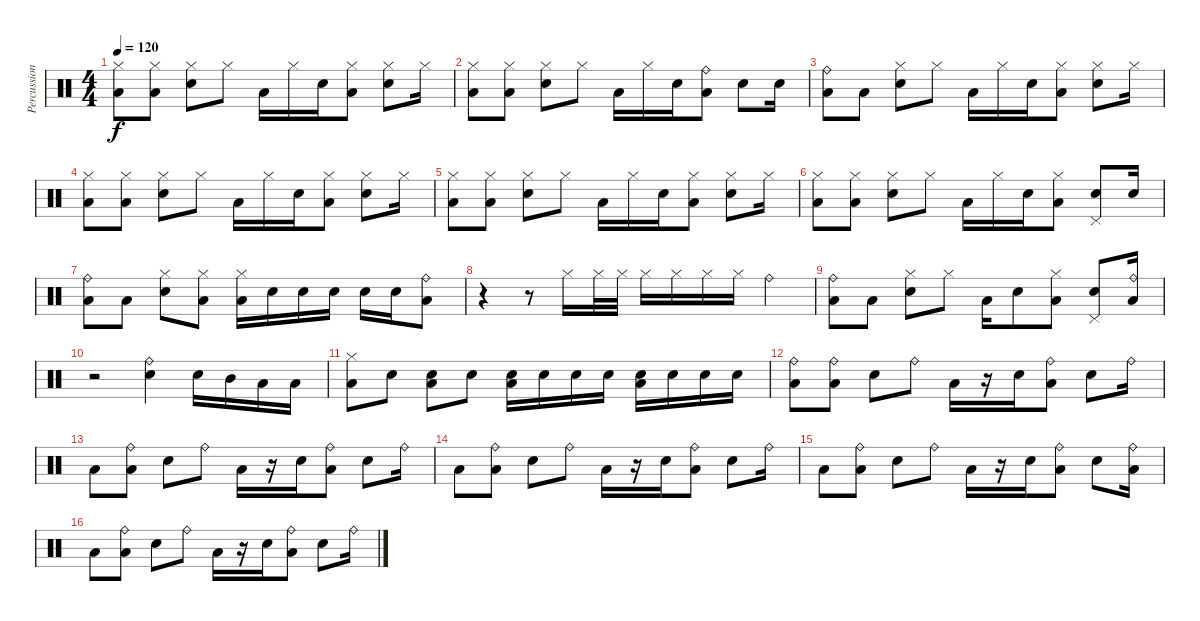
\track ("Percussion" "Percussion") {instrument percussion}
\staff {score}
\articulation defaults
\ts (4 4)
\tempo 120
\clef neutral
\ks c
("Hi-Hat (closed)" "Low Floor Tom (hit)").8{dy f} ("Hi-Hat (closed)" "Low Floor Tom (hit)").8 ("Hi-Hat (closed)" "Snare (hit) 2").8 "Hi-Hat (closed)".8 "Low Floor Tom (hit)".16 "Hi-Hat (closed)".16 "Snare (hit) 2".16 ("Hi-Hat (closed)" "Low Floor Tom (hit)").8 ("Hi-Hat (closed)" "Snare (hit) 2").8 "Hi-Hat (closed)".16 |
("Hi-Hat (closed)" "Low Floor Tom (hit)").8 ("Hi-Hat (closed)" "Low Floor Tom (hit)").8 ("Hi-Hat (closed)" "Snare (hit) 2").8 "Hi-Hat (closed)".8 "Low Floor Tom (hit)".16 "Hi-Hat (closed)".16 "Snare (hit) 2".16 ("Ride (bell)" "Low Floor Tom (hit)").8 "Snare (hit) 2".8 "Snare (hit) 2".16 |
("Ride (bell)" "Low Floor Tom (hit)").8 "Low Floor Tom (hit)".8 ("Hi-Hat (closed)" "Snare (hit) 2").8 "Hi-Hat (closed)".8 "Low Floor Tom (hit)".16 "Hi-Hat (closed)".16 "Snare (hit) 2".16 ("Hi-Hat (closed)" "Low Floor Tom (hit)").8 ("Hi-Hat (closed)" "Snare (hit) 2").8 "Hi-Hat (closed)".16 |
("Hi-Hat (closed)" "Low Floor Tom (hit)").8 ("Hi-Hat (closed)" "Low Floor Tom (hit)").8 ("Hi-Hat (closed)" "Snare (hit) 2").8 "Hi-Hat (closed)".8 "Low Floor Tom (hit)".16 "Hi-Hat (closed)".16 "Snare (hit) 2".16 ("Hi-Hat (closed)" "Low Floor Tom (hit)").8 ("Hi-Hat (closed)" "Snare (hit) 2").8 "Hi-Hat (closed)".16 |
("Hi-Hat (closed)" "Low Floor Tom (hit)").8 ("Hi-Hat (closed)" "Low Floor Tom (hit)").8 ("Hi-Hat (closed)" "Snare (hit) 2").8 "Hi-Hat (closed)".8 "Low Floor Tom (hit)".16 "Hi-Hat (closed)".16 "Snare (hit) 2".16 ("Hi-Hat (closed)" "Low Floor Tom (hit)").8 ("Hi-Hat (closed)" "Snare (hit) 2").8 "Hi-Hat (closed)".16 |
("Hi-Hat (closed)" "Low Floor Tom (hit)").8 ("Hi-Hat (closed)" "Low Floor Tom (hit)").8 ("Hi-Hat (closed)" "Snare (hit) 2").8 "Hi-Hat (closed)".8 "Low Floor Tom (hit)".16 "Hi-Hat (closed)".16 "Snare (hit) 2".16 ("Hi-Hat (closed)" "Low Floor Tom (hit)").8 ("Pedal Hi-Hat (hit)" "Snare (hit) 2").8 "Snare (hit) 2".16 |
("Ride (bell)" "Low Floor Tom (hit)").8 "Low Floor Tom (hit)".8 ("Hi-Hat (closed)" "Snare (hit) 2").8 ("Hi-Hat (closed)" "Low Floor Tom (hit)").8 ("Hi-Hat (closed)" "Low Floor Tom (hit)").16 "Snare (hit) 2".16 "Snare (hit) 2".16 "Snare (hit) 2".16 "Snare (hit) 2".16 "Snare (hit) 2".16 ("Ride (bell)" "Low Floor Tom (hit)").8 |
r.4 r.8 "Hi-Hat (closed)".16 "Hi-Hat (closed)".32 "Hi-Hat (closed)".32 "Hi-Hat (closed)".16 "Hi-Hat (closed)".16 "Hi-Hat (closed)".16 "Hi-Hat (closed)".16 "Ride (bell)".4 |
("Ride (bell)" "Low Floor Tom (hit)").8 "Low Floor Tom (hit)".8 ("Hi-Hat (closed)" "Snare (hit) 2").8 "Hi-Hat (closed)".8 "Low Floor Tom (hit)".16 "Snare (hit) 2".8 ("Hi-Hat (closed)" "Low Floor Tom (hit)").8 ("Pedal Hi-Hat (hit)" "Snare (hit) 2").8 ("Ride (bell)" "Low Floor Tom (hit)").16 |
r.2 ("Ride (bell)" "Snare (hit) 2").4 "Snare (hit) 2".16 "Mid Tom (hit)".16 "Low Tom (hit)".16 "Low Floor Tom (hit)".16 |
("Hi-Hat (closed)" "Low Floor Tom (hit)").8 "Snare (hit) 2".8 ("Snare (hit) 2" "Low Floor Tom (hit)").8 "Snare (hit) 2".8 ("Snare (hit) 2" "Low Floor Tom (hit)").16 "Snare (hit) 2".16 "Snare (hit) 2".16 "Snare (hit) 2".16 ("Snare (hit) 2" "Low Floor Tom (hit)").16 "Snare (hit) 2".16 "Snare (hit) 2".16 "Snare (hit) 2".16 |
("Ride (bell)" "Low Floor Tom (hit)").8 ("Ride (bell)" "Low Floor Tom (hit)").8 "Snare (hit) 2".8 "Ride (bell)".8 "Low Floor Tom (hit)".16 r.16 "Snare (hit) 2".16 ("Ride (bell)" "Low Floor Tom (hit)").8 "Snare (hit) 2".8 "Ride (bell)".16 |
"Low Floor Tom (hit)".8 ("Ride (bell)" "Low Floor Tom (hit)").8 "Snare (hit) 2".8 "Ride (bell)".8 "Low Floor Tom (hit)".16 r.16 "Snare (hit) 2".16 ("Ride (bell)" "Low Floor Tom (hit)").8 "Snare (hit) 2".8 "Ride (bell)".16 |
"Low Floor Tom (hit)".8 ("Ride (bell)" "Low Floor Tom (hit)").8 "Snare (hit) 2".8 "Ride (bell)".8 "Low Floor Tom (hit)".16 r.16 "Snare (hit) 2".16 ("Ride (bell)" "Low Floor Tom (hit)").8 "Snare (hit) 2".8 "Ride (bell)".16 |
"Low Floor Tom (hit)".8 ("Ride (bell)" "Low Floor Tom (hit)").8 "Snare (hit) 2".8 "Ride (bell)".8 "Low Floor Tom (hit)".16 r.16 "Snare (hit) 2".16 ("Ride (bell)" "Low Floor Tom (hit)").8 "Snare (hit) 2".8 ("Ride (bell)" "Low Floor Tom (hit)").16 |
"Low Floor Tom (hit)".8 ("Ride (bell)" "Low Floor Tom (hit)").8 "Snare (hit) 2".8 "Ride (bell)".8 "Low Floor Tom (hit)".16 r.16 "Snare (hit) 2".16 ("Ride (bell)" "Low Floor Tom (hit)").8 "Snare (hit) 2".8 "Ride (bell)".16
